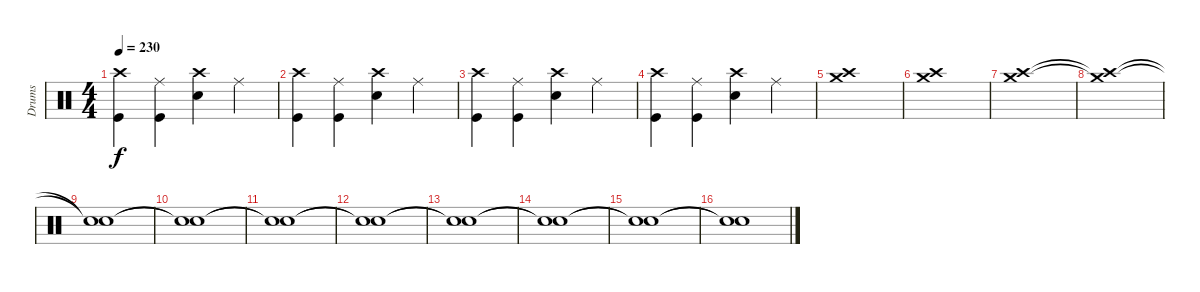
\track ("Drums" "Drums") {instrument percussion}
\staff {score}
\articulation defaults
\ts (4 4)
\tempo 230
\clef neutral
\ks c
("Crash high (hit)" "Kick (hit)").4{dy f} ("Ride (middle)" "Kick (hit)").4 ("Crash high (hit)" "Snare (hit) 2").4 "Ride (middle)".4 |
("Crash high (hit)" "Kick (hit)").4 ("Ride (middle)" "Kick (hit)").4 ("Crash high (hit)" "Snare (hit) 2").4 "Ride (middle)".4 |
("Crash high (hit)" "Kick (hit)").4 ("Ride (middle)" "Kick (hit)").4 ("Crash high (hit)" "Snare (hit) 2").4 "Ride (middle)".4 |
("Crash high (hit)" "Kick (hit)").4 ("Ride (middle)" "Kick (hit)").4 ("Crash high (hit)" "Snare (hit) 2").4 "Ride (middle)".4 |
("Crash high (hit)" "Crash medium (hit)").1 |
("Crash high (hit)" "Crash medium (hit)").1 |
("Crash high (hit)" "Crash medium (hit)").1 |
("Crash high (hit)"{t} "Crash medium (hit)"{t}).1 |
("Snare (hit)"{t} "Snare (hit)"{t}).1 |
("Snare (hit)"{t} "Snare (hit)"{t}).1 |
("Snare (hit)"{t} "Snare (hit)"{t}).1 |
("Snare (hit)"{t} "Snare (hit)"{t}).1 |
("Snare (hit)"{t} "Snare (hit)"{t}).1 |
("Snare (hit)"{t} "Snare (hit)"{t}).1 |
("Snare (hit)"{t} "Snare (hit)"{t}).1 |
("Snare (hit)"{t} "Snare (hit)"{t}).1
